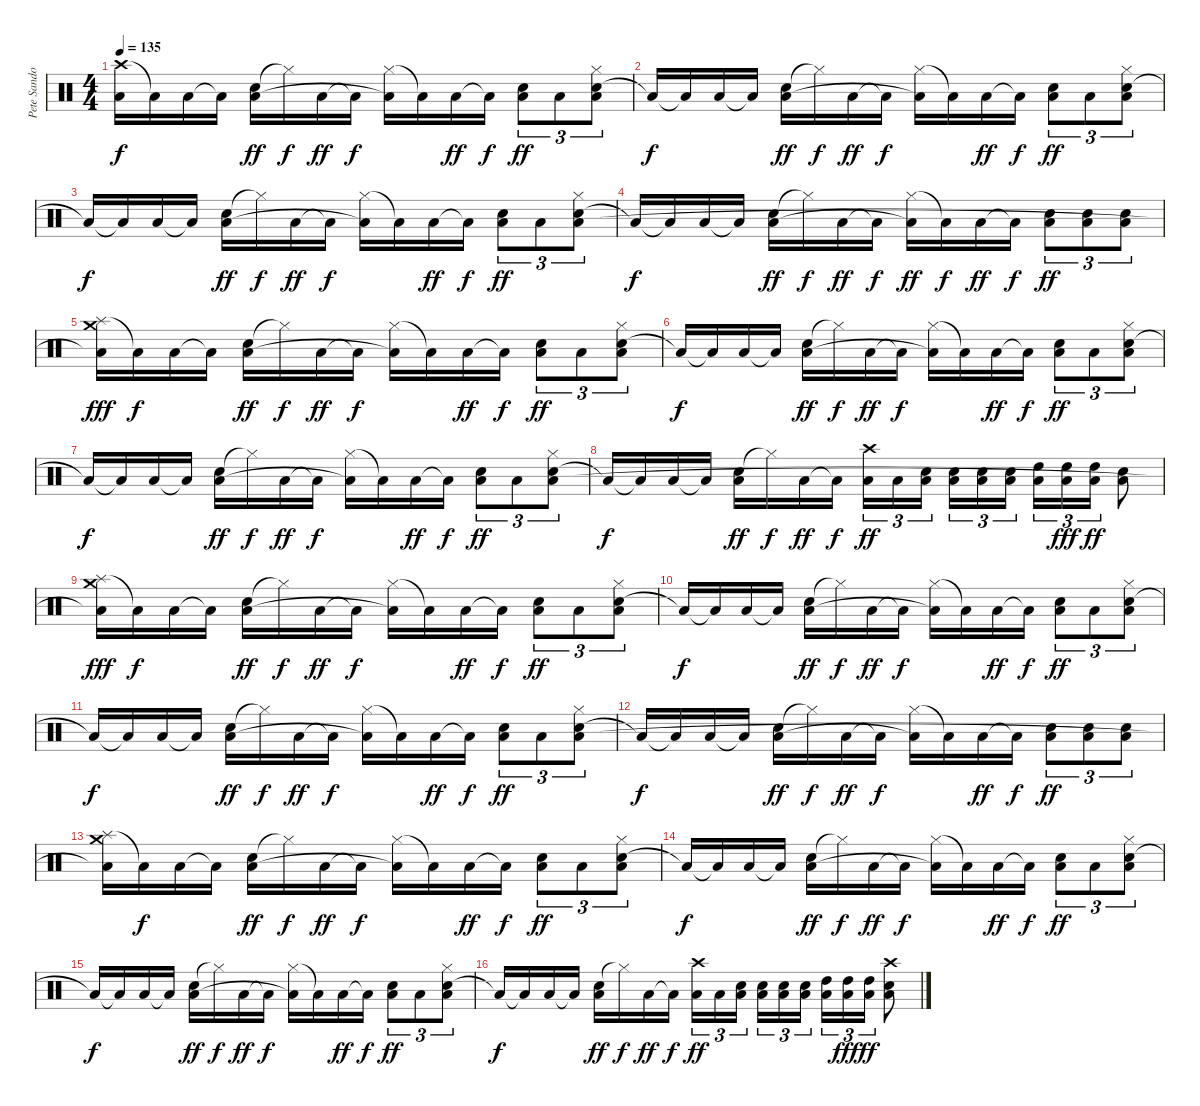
\track ("Pete Sandoval" "Pete Sando") {instrument percussion}
\staff {score}
\articulation defaults
\ts (4 4)
\tempo 135
\clef neutral
\ks c
("Crash high (hit)" "Low Floor Tom (hit)"{t}).16{dy f} "Low Floor Tom (hit)"{t}.16 "Low Floor Tom (hit)".16 "Low Floor Tom (hit)"{t}.16 ("Electric Snare (hit)" "Low Floor Tom (hit)").16{dy ff} "Hi-Hat (closed)"{t}.16{dy f} "Low Floor Tom (hit)".16{dy ff} "Low Floor Tom (hit)"{t}.16{dy f} ("Hi-Hat (closed)" "Low Floor Tom (hit)"{t}).16 "Low Floor Tom (hit)"{t}.16 "Low Floor Tom (hit)".16{dy ff} "Low Floor Tom (hit)"{t}.16{dy f} ("Electric Snare (hit)" "Low Floor Tom (hit)").8{tu (3 2) dy ff} "Low Floor Tom (hit)".8{tu (3 2)} ("Electric Snare (hit)" "Hi-Hat (closed)" "Low Floor Tom (hit)").8{tu (3 2)} |
"Low Floor Tom (hit)"{t}.16{dy f} "Low Floor Tom (hit)"{t}.16 "Low Floor Tom (hit)".16 "Low Floor Tom (hit)"{t}.16 ("Electric Snare (hit)" "Low Floor Tom (hit)").16{dy ff} "Hi-Hat (closed)"{t}.16{dy f} "Low Floor Tom (hit)".16{dy ff} "Low Floor Tom (hit)"{t}.16{dy f} ("Hi-Hat (closed)" "Low Floor Tom (hit)"{t}).16 "Low Floor Tom (hit)"{t}.16 "Low Floor Tom (hit)".16{dy ff} "Low Floor Tom (hit)"{t}.16{dy f} ("Electric Snare (hit)" "Low Floor Tom (hit)").8{tu (3 2) dy ff} "Low Floor Tom (hit)".8{tu (3 2)} ("Electric Snare (hit)" "Hi-Hat (closed)" "Low Floor Tom (hit)").8{tu (3 2)} |
"Low Floor Tom (hit)"{t}.16{dy f} "Low Floor Tom (hit)"{t}.16 "Low Floor Tom (hit)".16 "Low Floor Tom (hit)"{t}.16 ("Electric Snare (hit)" "Low Floor Tom (hit)").16{dy ff} "Hi-Hat (closed)"{t}.16{dy f} "Low Floor Tom (hit)".16{dy ff} "Low Floor Tom (hit)"{t}.16{dy f} ("Hi-Hat (closed)" "Low Floor Tom (hit)"{t}).16 "Low Floor Tom (hit)"{t}.16 "Low Floor Tom (hit)".16{dy ff} "Low Floor Tom (hit)"{t}.16{dy f} ("Electric Snare (hit)" "Low Floor Tom (hit)").8{tu (3 2) dy ff} "Low Floor Tom (hit)".8{tu (3 2)} ("Electric Snare (hit)" "Hi-Hat (closed)" "Low Floor Tom (hit)").8{tu (3 2)} |
"Low Floor Tom (hit)"{t}.16{dy f} "Low Floor Tom (hit)"{t}.16 "Low Floor Tom (hit)".16 "Low Floor Tom (hit)"{t}.16 ("Electric Snare (hit)" "Low Floor Tom (hit)").16{dy ff} "Hi-Hat (closed)"{t}.16{dy f} "Low Floor Tom (hit)".16{dy ff} "Low Floor Tom (hit)"{t}.16{dy f} ("Hi-Hat (closed)" "Low Floor Tom (hit)"{t}).16{dy ff} "Low Floor Tom (hit)"{t}.16{dy f} "Low Floor Tom (hit)".16{dy ff} "Low Floor Tom (hit)"{t}.16{dy f} ("Electric Snare (hit)" "Low Floor Tom (hit)").8{tu (3 2) dy ff} ("Electric Snare (hit)" "Low Floor Tom (hit)").8{tu (3 2)} ("Electric Snare (hit)" "Low Floor Tom (hit)").8{tu (3 2)} |
("Splash (hit)" "Crash medium (hit)" "Low Floor Tom (hit)"{t}).16{dy fff} "Low Floor Tom (hit)"{t}.16{dy f} "Low Floor Tom (hit)".16 "Low Floor Tom (hit)"{t}.16 ("Electric Snare (hit)" "Low Floor Tom (hit)").16{dy ff} "Hi-Hat (closed)"{t}.16{dy f} "Low Floor Tom (hit)".16{dy ff} "Low Floor Tom (hit)"{t}.16{dy f} ("Hi-Hat (closed)" "Low Floor Tom (hit)"{t}).16 "Low Floor Tom (hit)"{t}.16 "Low Floor Tom (hit)".16{dy ff} "Low Floor Tom (hit)"{t}.16{dy f} ("Electric Snare (hit)" "Low Floor Tom (hit)").8{tu (3 2) dy ff} "Low Floor Tom (hit)".8{tu (3 2)} ("Electric Snare (hit)" "Hi-Hat (closed)" "Low Floor Tom (hit)").8{tu (3 2)} |
"Low Floor Tom (hit)"{t}.16{dy f} "Low Floor Tom (hit)"{t}.16 "Low Floor Tom (hit)".16 "Low Floor Tom (hit)"{t}.16 ("Electric Snare (hit)" "Low Floor Tom (hit)").16{dy ff} "Hi-Hat (closed)"{t}.16{dy f} "Low Floor Tom (hit)".16{dy ff} "Low Floor Tom (hit)"{t}.16{dy f} ("Hi-Hat (closed)" "Low Floor Tom (hit)"{t}).16 "Low Floor Tom (hit)"{t}.16 "Low Floor Tom (hit)".16{dy ff} "Low Floor Tom (hit)"{t}.16{dy f} ("Electric Snare (hit)" "Low Floor Tom (hit)").8{tu (3 2) dy ff} "Low Floor Tom (hit)".8{tu (3 2)} ("Electric Snare (hit)" "Hi-Hat (closed)" "Low Floor Tom (hit)").8{tu (3 2)} |
"Low Floor Tom (hit)"{t}.16{dy f} "Low Floor Tom (hit)"{t}.16 "Low Floor Tom (hit)".16 "Low Floor Tom (hit)"{t}.16 ("Electric Snare (hit)" "Low Floor Tom (hit)").16{dy ff} "Hi-Hat (closed)"{t}.16{dy f} "Low Floor Tom (hit)".16{dy ff} "Low Floor Tom (hit)"{t}.16{dy f} ("Hi-Hat (closed)" "Low Floor Tom (hit)"{t}).16 "Low Floor Tom (hit)"{t}.16 "Low Floor Tom (hit)".16{dy ff} "Low Floor Tom (hit)"{t}.16{dy f} ("Electric Snare (hit)" "Low Floor Tom (hit)").8{tu (3 2) dy ff} "Low Floor Tom (hit)".8{tu (3 2)} ("Electric Snare (hit)" "Hi-Hat (closed)" "Low Floor Tom (hit)").8{tu (3 2)} |
"Low Floor Tom (hit)"{t}.16{dy f} "Low Floor Tom (hit)"{t}.16 "Low Floor Tom (hit)".16 "Low Floor Tom (hit)"{t}.16 ("Electric Snare (hit)" "Low Floor Tom (hit)").16{dy ff} "Hi-Hat (closed)"{t}.16{dy f} "Low Floor Tom (hit)".16{dy ff} "Low Floor Tom (hit)"{t}.16{dy f} ("Crash high (hit)" "Low Floor Tom (hit)").16{tu (3 2) dy ff} "Low Floor Tom (hit)".16{tu (3 2)} ("Electric Snare (hit)" "Low Floor Tom (hit)").16{tu (3 2) beam splitsecondary} ("Electric Snare (hit)" "Low Floor Tom (hit)").16{tu (3 2)} ("Electric Snare (hit)" "Low Floor Tom (hit)").16{tu (3 2)} ("Electric Snare (hit)" "Low Floor Tom (hit)").16{tu (3 2)} ("High Tom (hit)" "Low Floor Tom (hit)").16{tu (3 2)} ("High Tom (hit)" "Low Floor Tom (hit)").16{tu (3 2) dy fff} ("High Tom (hit)" "Low Floor Tom (hit)").16{tu (3 2) dy ff} ("Electric Snare (hit)" "Low Floor Tom (hit)").8 |
("Splash (hit)" "Crash medium (hit)" "Low Floor Tom (hit)"{t}).16{dy fff} "Low Floor Tom (hit)"{t}.16{dy f} "Low Floor Tom (hit)".16 "Low Floor Tom (hit)"{t}.16 ("Electric Snare (hit)" "Low Floor Tom (hit)").16{dy ff} "Hi-Hat (closed)"{t}.16{dy f} "Low Floor Tom (hit)".16{dy ff} "Low Floor Tom (hit)"{t}.16{dy f} ("Hi-Hat (closed)" "Low Floor Tom (hit)"{t}).16 "Low Floor Tom (hit)"{t}.16 "Low Floor Tom (hit)".16{dy ff} "Low Floor Tom (hit)"{t}.16{dy f} ("Electric Snare (hit)" "Low Floor Tom (hit)").8{tu (3 2) dy ff} "Low Floor Tom (hit)".8{tu (3 2)} ("Electric Snare (hit)" "Hi-Hat (closed)" "Low Floor Tom (hit)").8{tu (3 2)} |
"Low Floor Tom (hit)"{t}.16{dy f} "Low Floor Tom (hit)"{t}.16 "Low Floor Tom (hit)".16 "Low Floor Tom (hit)"{t}.16 ("Electric Snare (hit)" "Low Floor Tom (hit)").16{dy ff} "Hi-Hat (closed)"{t}.16{dy f} "Low Floor Tom (hit)".16{dy ff} "Low Floor Tom (hit)"{t}.16{dy f} ("Hi-Hat (closed)" "Low Floor Tom (hit)"{t}).16 "Low Floor Tom (hit)"{t}.16 "Low Floor Tom (hit)".16{dy ff} "Low Floor Tom (hit)"{t}.16{dy f} ("Electric Snare (hit)" "Low Floor Tom (hit)").8{tu (3 2) dy ff} "Low Floor Tom (hit)".8{tu (3 2)} ("Electric Snare (hit)" "Hi-Hat (closed)" "Low Floor Tom (hit)").8{tu (3 2)} |
"Low Floor Tom (hit)"{t}.16{dy f} "Low Floor Tom (hit)"{t}.16 "Low Floor Tom (hit)".16 "Low Floor Tom (hit)"{t}.16 ("Electric Snare (hit)" "Low Floor Tom (hit)").16{dy ff} "Hi-Hat (closed)"{t}.16{dy f} "Low Floor Tom (hit)".16{dy ff} "Low Floor Tom (hit)"{t}.16{dy f} ("Hi-Hat (closed)" "Low Floor Tom (hit)"{t}).16 "Low Floor Tom (hit)"{t}.16 "Low Floor Tom (hit)".16{dy ff} "Low Floor Tom (hit)"{t}.16{dy f} ("Electric Snare (hit)" "Low Floor Tom (hit)").8{tu (3 2) dy ff} "Low Floor Tom (hit)".8{tu (3 2)} ("Electric Snare (hit)" "Hi-Hat (closed)" "Low Floor Tom (hit)").8{tu (3 2)} |
"Low Floor Tom (hit)"{t}.16{dy f} "Low Floor Tom (hit)"{t}.16 "Low Floor Tom (hit)".16 "Low Floor Tom (hit)"{t}.16 ("Electric Snare (hit)" "Low Floor Tom (hit)").16{dy ff} "Hi-Hat (closed)"{t}.16{dy f} "Low Floor Tom (hit)".16{dy ff} "Low Floor Tom (hit)"{t}.16{dy f} ("Hi-Hat (closed)" "Low Floor Tom (hit)"{t}).16 "Low Floor Tom (hit)"{t}.16 "Low Floor Tom (hit)".16{dy ff} "Low Floor Tom (hit)"{t}.16{dy f} ("Electric Snare (hit)" "Low Floor Tom (hit)").8{tu (3 2) dy ff} ("Electric Snare (hit)" "Low Floor Tom (hit)").8{tu (3 2)} ("Electric Snare (hit)" "Low Floor Tom (hit)").8{tu (3 2)} |
("Splash (hit)" "Crash medium (hit)" "Low Floor Tom (hit)"{t}).16 "Low Floor Tom (hit)"{t}.16{dy f} "Low Floor Tom (hit)".16 "Low Floor Tom (hit)"{t}.16 ("Electric Snare (hit)" "Low Floor Tom (hit)").16{dy ff} "Hi-Hat (closed)"{t}.16{dy f} "Low Floor Tom (hit)".16{dy ff} "Low Floor Tom (hit)"{t}.16{dy f} ("Hi-Hat (closed)" "Low Floor Tom (hit)"{t}).16 "Low Floor Tom (hit)"{t}.16 "Low Floor Tom (hit)".16{dy ff} "Low Floor Tom (hit)"{t}.16{dy f} ("Electric Snare (hit)" "Low Floor Tom (hit)").8{tu (3 2) dy ff} "Low Floor Tom (hit)".8{tu (3 2)} ("Electric Snare (hit)" "Hi-Hat (closed)" "Low Floor Tom (hit)").8{tu (3 2)} |
"Low Floor Tom (hit)"{t}.16{dy f} "Low Floor Tom (hit)"{t}.16 "Low Floor Tom (hit)".16 "Low Floor Tom (hit)"{t}.16 ("Electric Snare (hit)" "Low Floor Tom (hit)").16{dy ff} "Hi-Hat (closed)"{t}.16{dy f} "Low Floor Tom (hit)".16{dy ff} "Low Floor Tom (hit)"{t}.16{dy f} ("Hi-Hat (closed)" "Low Floor Tom (hit)"{t}).16 "Low Floor Tom (hit)"{t}.16 "Low Floor Tom (hit)".16{dy ff} "Low Floor Tom (hit)"{t}.16{dy f} ("Electric Snare (hit)" "Low Floor Tom (hit)").8{tu (3 2) dy ff} "Low Floor Tom (hit)".8{tu (3 2)} ("Electric Snare (hit)" "Hi-Hat (closed)" "Low Floor Tom (hit)").8{tu (3 2)} |
"Low Floor Tom (hit)"{t}.16{dy f} "Low Floor Tom (hit)"{t}.16 "Low Floor Tom (hit)".16 "Low Floor Tom (hit)"{t}.16 ("Electric Snare (hit)" "Low Floor Tom (hit)").16{dy ff} "Hi-Hat (closed)"{t}.16{dy f} "Low Floor Tom (hit)".16{dy ff} "Low Floor Tom (hit)"{t}.16{dy f} ("Hi-Hat (closed)" "Low Floor Tom (hit)"{t}).16 "Low Floor Tom (hit)"{t}.16 "Low Floor Tom (hit)".16{dy ff} "Low Floor Tom (hit)"{t}.16{dy f} ("Electric Snare (hit)" "Low Floor Tom (hit)").8{tu (3 2) dy ff} "Low Floor Tom (hit)".8{tu (3 2)} ("Electric Snare (hit)" "Hi-Hat (closed)" "Low Floor Tom (hit)").8{tu (3 2)} |
"Low Floor Tom (hit)"{t}.16{dy f} "Low Floor Tom (hit)"{t}.16 "Low Floor Tom (hit)".16 "Low Floor Tom (hit)"{t}.16 ("Electric Snare (hit)" "Low Floor Tom (hit)").16{dy ff} "Hi-Hat (closed)"{t}.16{dy f} "Low Floor Tom (hit)".16{dy ff} "Low Floor Tom (hit)"{t}.16{dy f} ("Crash high (hit)" "Low Floor Tom (hit)").16{tu (3 2) dy ff} "Low Floor Tom (hit)".16{tu (3 2)} ("Electric Snare (hit)" "Low Floor Tom (hit)").16{tu (3 2) beam splitsecondary} ("Electric Snare (hit)" "Low Floor Tom (hit)").16{tu (3 2)} ("Electric Snare (hit)" "Low Floor Tom (hit)").16{tu (3 2)} ("Electric Snare (hit)" "Low Floor Tom (hit)").16{tu (3 2)} ("High Tom (hit)" "Low Floor Tom (hit)").16{tu (3 2)} ("High Tom (hit)" "Low Floor Tom (hit)").16{tu (3 2) dy fff} ("High Tom (hit)" "Low Floor Tom (hit)").16{tu (3 2) dy ff} ("Crash high (hit)" "Electric Snare (hit)" "Low Floor Tom (hit)").8
